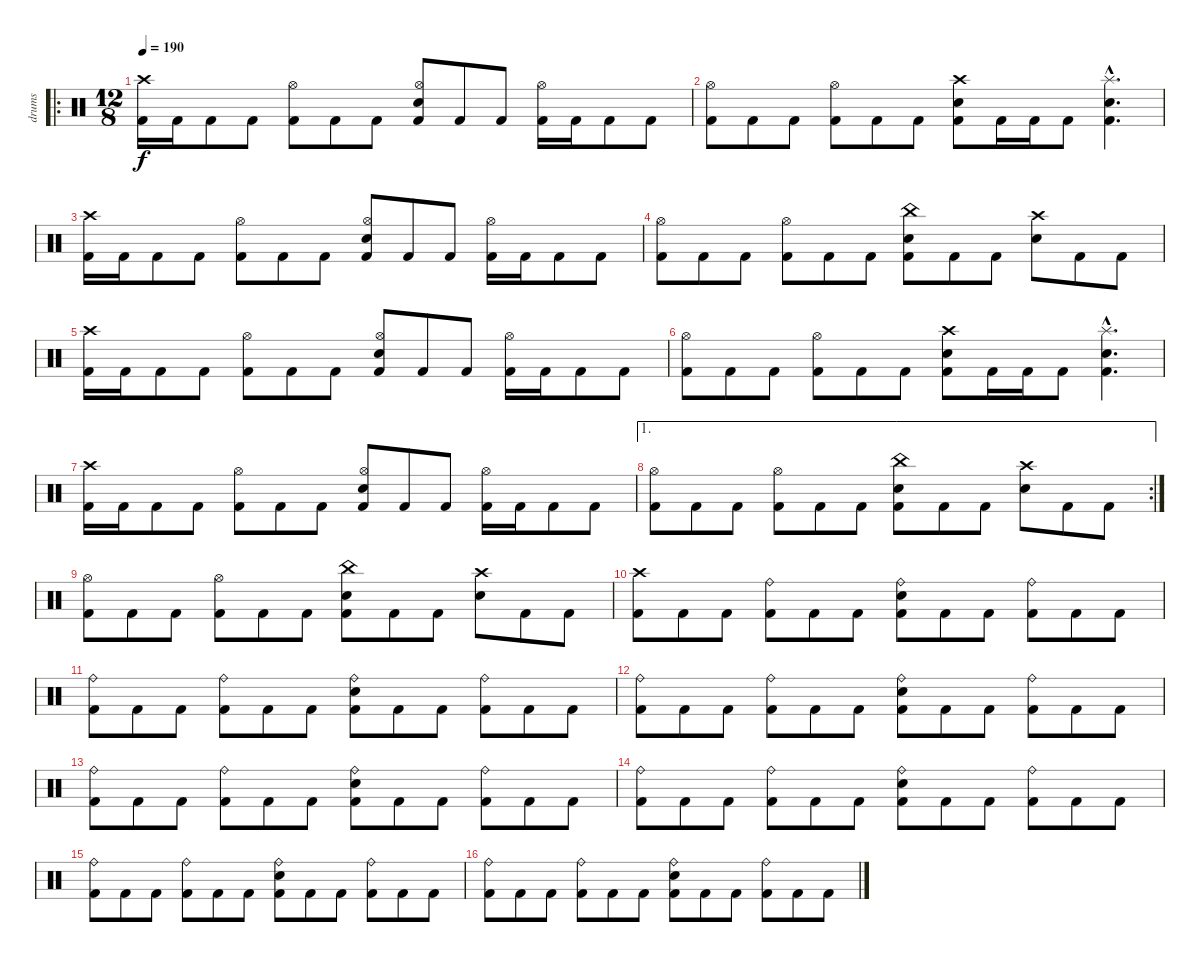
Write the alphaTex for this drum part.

\track ("drums" "drums") {instrument percussion}
\staff {score}
\articulation defaults
\ro
\ts (12 8)
\tempo 190
\clef neutral
\ks c
("Crash high (hit)" "Kick (hit) 2").16{dy f} "Kick (hit) 2".16 "Kick (hit) 2".8 "Kick (hit) 2".8 ("Hi-Hat (open)" "Kick (hit) 2").8 "Kick (hit) 2".8 "Kick (hit) 2".8 ("Hi-Hat (open)" "Electric Snare (hit)" "Kick (hit) 2").8 "Kick (hit) 2".8 "Kick (hit) 2".8 ("Hi-Hat (open)" "Kick (hit) 2").16 "Kick (hit) 2".16 "Kick (hit) 2".8 "Kick (hit) 2".8 |
("Hi-Hat (open)" "Kick (hit) 2").8 "Kick (hit) 2".8 "Kick (hit) 2".8 ("Hi-Hat (open)" "Kick (hit) 2").8 "Kick (hit) 2".8 "Kick (hit) 2".8 ("Crash high (hit)" "Electric Snare (hit)" "Kick (hit) 2").8 "Kick (hit) 2".16 "Kick (hit) 2".16 "Kick (hit) 2".8 ("Splash (hit)"{hac} "Electric Snare (hit)"{hac} "Kick (hit) 2"{hac}).4{d} |
("Crash high (hit)" "Kick (hit) 2").16 "Kick (hit) 2".16 "Kick (hit) 2".8 "Kick (hit) 2".8 ("Hi-Hat (open)" "Kick (hit) 2").8 "Kick (hit) 2".8 "Kick (hit) 2".8 ("Hi-Hat (open)" "Electric Snare (hit)" "Kick (hit) 2").8 "Kick (hit) 2".8 "Kick (hit) 2".8 ("Hi-Hat (open)" "Kick (hit) 2").16 "Kick (hit) 2".16 "Kick (hit) 2".8 "Kick (hit) 2".8 |
("Hi-Hat (open)" "Kick (hit) 2").8 "Kick (hit) 2".8 "Kick (hit) 2".8 ("Hi-Hat (open)" "Kick (hit) 2").8 "Kick (hit) 2".8 "Kick (hit) 2".8 ("China (hit)" "Electric Snare (hit)" "Kick (hit) 2").8 "Kick (hit) 2".8 "Kick (hit) 2".8 ("Crash high (hit)" "Electric Snare (hit)").8 "Kick (hit) 2".8 "Kick (hit) 2".8 |
("Crash high (hit)" "Kick (hit) 2").16 "Kick (hit) 2".16 "Kick (hit) 2".8 "Kick (hit) 2".8 ("Hi-Hat (open)" "Kick (hit) 2").8 "Kick (hit) 2".8 "Kick (hit) 2".8 ("Hi-Hat (open)" "Electric Snare (hit)" "Kick (hit) 2").8 "Kick (hit) 2".8 "Kick (hit) 2".8 ("Hi-Hat (open)" "Kick (hit) 2").16 "Kick (hit) 2".16 "Kick (hit) 2".8 "Kick (hit) 2".8 |
("Hi-Hat (open)" "Kick (hit) 2").8 "Kick (hit) 2".8 "Kick (hit) 2".8 ("Hi-Hat (open)" "Kick (hit) 2").8 "Kick (hit) 2".8 "Kick (hit) 2".8 ("Crash high (hit)" "Electric Snare (hit)" "Kick (hit) 2").8 "Kick (hit) 2".16 "Kick (hit) 2".16 "Kick (hit) 2".8 ("Splash (hit)"{hac} "Electric Snare (hit)"{hac} "Kick (hit) 2"{hac}).4{d} |
("Crash high (hit)" "Kick (hit) 2").16 "Kick (hit) 2".16 "Kick (hit) 2".8 "Kick (hit) 2".8 ("Hi-Hat (open)" "Kick (hit) 2").8 "Kick (hit) 2".8 "Kick (hit) 2".8 ("Hi-Hat (open)" "Electric Snare (hit)" "Kick (hit) 2").8 "Kick (hit) 2".8 "Kick (hit) 2".8 ("Hi-Hat (open)" "Kick (hit) 2").16 "Kick (hit) 2".16 "Kick (hit) 2".8 "Kick (hit) 2".8 |
\ae 1
\rc 2
("Hi-Hat (open)" "Kick (hit) 2").8 "Kick (hit) 2".8 "Kick (hit) 2".8 ("Hi-Hat (open)" "Kick (hit) 2").8 "Kick (hit) 2".8 "Kick (hit) 2".8 ("China (hit)" "Electric Snare (hit)" "Kick (hit) 2").8 "Kick (hit) 2".8 "Kick (hit) 2".8 ("Crash high (hit)" "Electric Snare (hit)").8 "Kick (hit) 2".8 "Kick (hit) 2".8 |
("Hi-Hat (open)" "Kick (hit) 2").8 "Kick (hit) 2".8 "Kick (hit) 2".8 ("Hi-Hat (open)" "Kick (hit) 2").8 "Kick (hit) 2".8 "Kick (hit) 2".8 ("China (hit)" "Electric Snare (hit)" "Kick (hit) 2").8 "Kick (hit) 2".8 "Kick (hit) 2".8 ("Crash high (hit)" "Electric Snare (hit)").8 "Kick (hit) 2".8 "Kick (hit) 2".8 |
("Crash high (hit)" "Kick (hit) 2").8 "Kick (hit) 2".8 "Kick (hit) 2".8 ("Ride (bell)" "Kick (hit) 2").8 "Kick (hit) 2".8 "Kick (hit) 2".8 ("Ride (bell)" "Electric Snare (hit)" "Kick (hit) 2").8 "Kick (hit) 2".8 "Kick (hit) 2".8 ("Ride (bell)" "Kick (hit) 2").8 "Kick (hit) 2".8 "Kick (hit) 2".8 |
("Ride (bell)" "Kick (hit) 2").8 "Kick (hit) 2".8 "Kick (hit) 2".8 ("Ride (bell)" "Kick (hit) 2").8 "Kick (hit) 2".8 "Kick (hit) 2".8 ("Ride (bell)" "Electric Snare (hit)" "Kick (hit) 2").8 "Kick (hit) 2".8 "Kick (hit) 2".8 ("Ride (bell)" "Kick (hit) 2").8 "Kick (hit) 2".8 "Kick (hit) 2".8 |
("Ride (bell)" "Kick (hit) 2").8 "Kick (hit) 2".8 "Kick (hit) 2".8 ("Ride (bell)" "Kick (hit) 2").8 "Kick (hit) 2".8 "Kick (hit) 2".8 ("Ride (bell)" "Electric Snare (hit)" "Kick (hit) 2").8 "Kick (hit) 2".8 "Kick (hit) 2".8 ("Ride (bell)" "Kick (hit) 2").8 "Kick (hit) 2".8 "Kick (hit) 2".8 |
("Ride (bell)" "Kick (hit) 2").8 "Kick (hit) 2".8 "Kick (hit) 2".8 ("Ride (bell)" "Kick (hit) 2").8 "Kick (hit) 2".8 "Kick (hit) 2".8 ("Ride (bell)" "Electric Snare (hit)" "Kick (hit) 2").8 "Kick (hit) 2".8 "Kick (hit) 2".8 ("Ride (bell)" "Kick (hit) 2").8 "Kick (hit) 2".8 "Kick (hit) 2".8 |
("Ride (bell)" "Kick (hit) 2").8 "Kick (hit) 2".8 "Kick (hit) 2".8 ("Ride (bell)" "Kick (hit) 2").8 "Kick (hit) 2".8 "Kick (hit) 2".8 ("Ride (bell)" "Electric Snare (hit)" "Kick (hit) 2").8 "Kick (hit) 2".8 "Kick (hit) 2".8 ("Ride (bell)" "Kick (hit) 2").8 "Kick (hit) 2".8 "Kick (hit) 2".8 |
("Ride (bell)" "Kick (hit) 2").8 "Kick (hit) 2".8 "Kick (hit) 2".8 ("Ride (bell)" "Kick (hit) 2").8 "Kick (hit) 2".8 "Kick (hit) 2".8 ("Ride (bell)" "Electric Snare (hit)" "Kick (hit) 2").8 "Kick (hit) 2".8 "Kick (hit) 2".8 ("Ride (bell)" "Kick (hit) 2").8 "Kick (hit) 2".8 "Kick (hit) 2".8 |
("Ride (bell)" "Kick (hit) 2").8 "Kick (hit) 2".8 "Kick (hit) 2".8 ("Ride (bell)" "Kick (hit) 2").8 "Kick (hit) 2".8 "Kick (hit) 2".8 ("Ride (bell)" "Electric Snare (hit)" "Kick (hit) 2").8 "Kick (hit) 2".8 "Kick (hit) 2".8 ("Ride (bell)" "Kick (hit) 2").8 "Kick (hit) 2".8 "Kick (hit) 2".8
